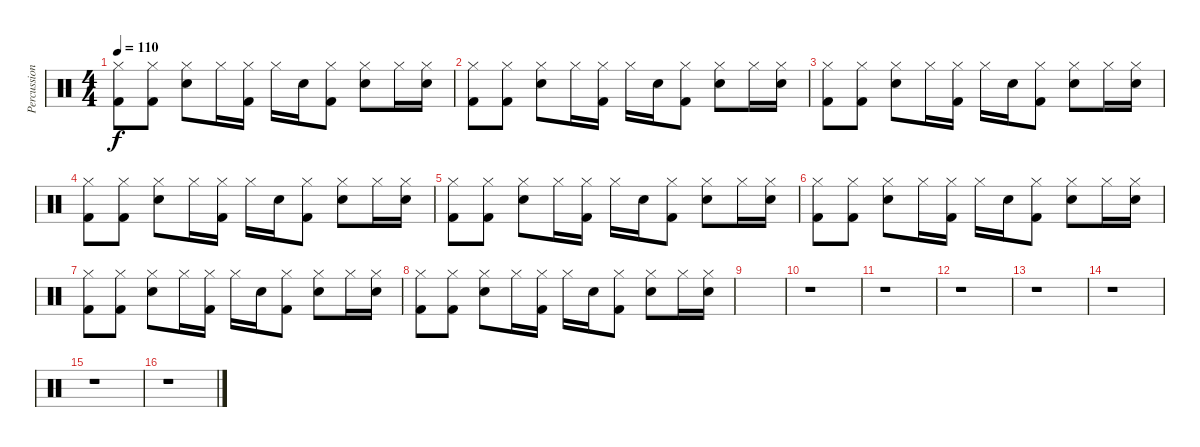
\track ("Percussion" "Percussion") {instrument percussion}
\staff {score}
\articulation defaults
\ts (4 4)
\tempo 110
\clef neutral
\ks c
("Hi-Hat (closed)" "Kick (hit) 2").8{dy f} ("Hi-Hat (closed)" "Kick (hit) 2").8 ("Hi-Hat (closed)" "Snare (hit) 2").8 "Hi-Hat (closed)".16 ("Hi-Hat (closed)" "Kick (hit) 2").16 "Hi-Hat (closed)".16 "Snare (hit) 2".16 ("Hi-Hat (closed)" "Kick (hit) 2").8 ("Hi-Hat (closed)" "Snare (hit) 2").8 "Hi-Hat (closed)".16 ("Hi-Hat (closed)" "Snare (hit) 2").16 |
("Hi-Hat (closed)" "Kick (hit) 2").8 ("Hi-Hat (closed)" "Kick (hit) 2").8 ("Hi-Hat (closed)" "Snare (hit) 2").8 "Hi-Hat (closed)".16 ("Hi-Hat (closed)" "Kick (hit) 2").16 "Hi-Hat (closed)".16 "Snare (hit) 2".16 ("Hi-Hat (closed)" "Kick (hit) 2").8 ("Hi-Hat (closed)" "Snare (hit) 2").8 "Hi-Hat (closed)".16 ("Hi-Hat (closed)" "Snare (hit) 2").16 |
("Hi-Hat (closed)" "Kick (hit) 2").8 ("Hi-Hat (closed)" "Kick (hit) 2").8 ("Hi-Hat (closed)" "Snare (hit) 2").8 "Hi-Hat (closed)".16 ("Hi-Hat (closed)" "Kick (hit) 2").16 "Hi-Hat (closed)".16 "Snare (hit) 2".16 ("Hi-Hat (closed)" "Kick (hit) 2").8 ("Hi-Hat (closed)" "Snare (hit) 2").8 "Hi-Hat (closed)".16 ("Hi-Hat (closed)" "Snare (hit) 2").16 |
("Hi-Hat (closed)" "Kick (hit) 2").8 ("Hi-Hat (closed)" "Kick (hit) 2").8 ("Hi-Hat (closed)" "Snare (hit) 2").8 "Hi-Hat (closed)".16 ("Hi-Hat (closed)" "Kick (hit) 2").16 "Hi-Hat (closed)".16 "Snare (hit) 2".16 ("Hi-Hat (closed)" "Kick (hit) 2").8 ("Hi-Hat (closed)" "Snare (hit) 2").8 "Hi-Hat (closed)".16 ("Hi-Hat (closed)" "Snare (hit) 2").16 |
("Hi-Hat (closed)" "Kick (hit) 2").8 ("Hi-Hat (closed)" "Kick (hit) 2").8 ("Hi-Hat (closed)" "Snare (hit) 2").8 "Hi-Hat (closed)".16 ("Hi-Hat (closed)" "Kick (hit) 2").16 "Hi-Hat (closed)".16 "Snare (hit) 2".16 ("Hi-Hat (closed)" "Kick (hit) 2").8 ("Hi-Hat (closed)" "Snare (hit) 2").8 "Hi-Hat (closed)".16 ("Hi-Hat (closed)" "Snare (hit) 2").16 |
("Hi-Hat (closed)" "Kick (hit) 2").8 ("Hi-Hat (closed)" "Kick (hit) 2").8 ("Hi-Hat (closed)" "Snare (hit) 2").8 "Hi-Hat (closed)".16 ("Hi-Hat (closed)" "Kick (hit) 2").16 "Hi-Hat (closed)".16 "Snare (hit) 2".16 ("Hi-Hat (closed)" "Kick (hit) 2").8 ("Hi-Hat (closed)" "Snare (hit) 2").8 "Hi-Hat (closed)".16 ("Hi-Hat (closed)" "Snare (hit) 2").16 |
("Hi-Hat (closed)" "Kick (hit) 2").8 ("Hi-Hat (closed)" "Kick (hit) 2").8 ("Hi-Hat (closed)" "Snare (hit) 2").8 "Hi-Hat (closed)".16 ("Hi-Hat (closed)" "Kick (hit) 2").16 "Hi-Hat (closed)".16 "Snare (hit) 2".16 ("Hi-Hat (closed)" "Kick (hit) 2").8 ("Hi-Hat (closed)" "Snare (hit) 2").8 "Hi-Hat (closed)".16 ("Hi-Hat (closed)" "Snare (hit) 2").16 |
("Hi-Hat (closed)" "Kick (hit) 2").8 ("Hi-Hat (closed)" "Kick (hit) 2").8 ("Hi-Hat (closed)" "Snare (hit) 2").8 "Hi-Hat (closed)".16 ("Hi-Hat (closed)" "Kick (hit) 2").16 "Hi-Hat (closed)".16 "Snare (hit) 2".16 ("Hi-Hat (closed)" "Kick (hit) 2").8 ("Hi-Hat (closed)" "Snare (hit) 2").8 "Hi-Hat (closed)".16 ("Hi-Hat (closed)" "Snare (hit) 2").16 |
|
r.1 |
r.1 |
r.1 |
r.1 |
r.1 |
r.1 |
r.1
